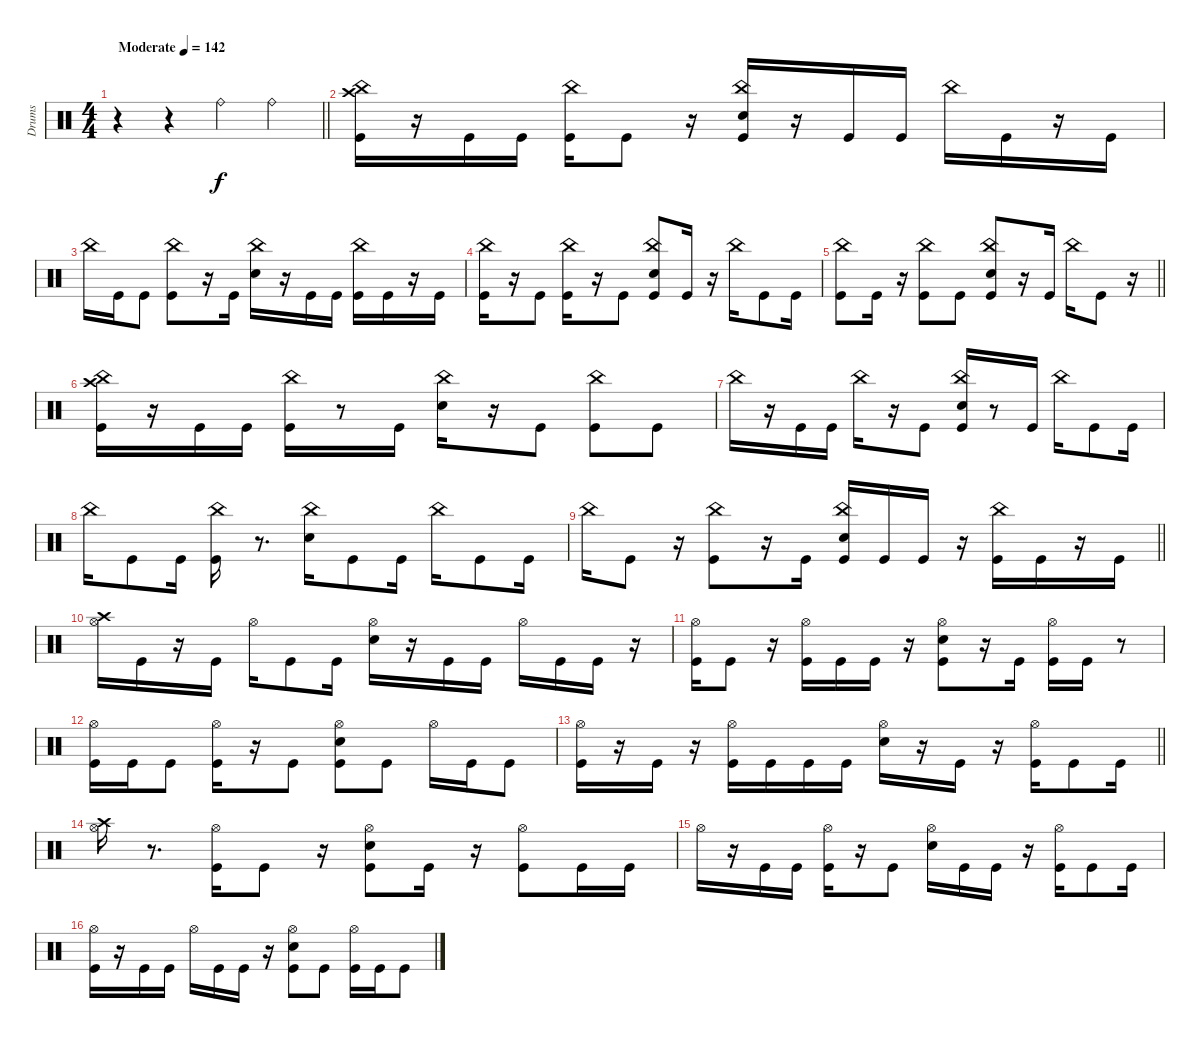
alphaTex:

\track ("Drums" "Drums") {instrument percussion}
\staff {score}
\articulation defaults
\ts (4 4)
\tempo (142 "Moderate")
\clef neutral
\barLineRight lightlight
\ks c
r.4{dy f} r.4 "Ride (bell)".4 "Ride (bell)".4 |
("Kick (hit)" "China (hit)" "Crash high (hit)").16 r.16 "Kick (hit)".16 "Kick (hit)".16 ("Kick (hit)" "China (hit)").16 "Kick (hit)".8 r.16 ("Kick (hit)" "China (hit)" "Electric Snare (hit)").16 r.16 "Kick (hit)".16 "Kick (hit)".16 "China (hit)".16 "Kick (hit)".16 r.16 "Kick (hit)".16 |
"China (hit)".16 "Kick (hit)".16 "Kick (hit)".8 ("Kick (hit)" "China (hit)").8 r.16 "Kick (hit)".16 ("China (hit)" "Electric Snare (hit)").16 r.16 "Kick (hit)".16 "Kick (hit)".16 ("Kick (hit)" "China (hit)").16 "Kick (hit)".16 r.16 "Kick (hit)".16 |
("Kick (hit)" "China (hit)").16 r.16 "Kick (hit)".8 ("Kick (hit)" "China (hit)").16 r.16 "Kick (hit)".8 ("Kick (hit)" "China (hit)" "Electric Snare (hit)").8 "Kick (hit)".16 r.16 "China (hit)".16 "Kick (hit)".8 "Kick (hit)".16 |
\barLineRight lightlight
("Kick (hit)" "China (hit)").8 "Kick (hit)".16 r.16 ("Kick (hit)" "China (hit)").8 "Kick (hit)".8 ("Kick (hit)" "China (hit)" "Electric Snare (hit)").8 r.16 "Kick (hit)".16 "China (hit)".16 "Kick (hit)".8 r.16 |
("Kick (hit)" "China (hit)" "Crash high (hit)").16 r.16 "Kick (hit)".16 "Kick (hit)".16 ("Kick (hit)" "China (hit)").16 r.8 "Kick (hit)".16 ("China (hit)" "Electric Snare (hit)").16 r.16 "Kick (hit)".8 ("Kick (hit)" "China (hit)").8 "Kick (hit)".8 |
"China (hit)".16 r.16 "Kick (hit)".16 "Kick (hit)".16 "China (hit)".16 r.16 "Kick (hit)".8 ("Kick (hit)" "China (hit)" "Electric Snare (hit)").16 r.8 "Kick (hit)".16 "China (hit)".16 "Kick (hit)".8 "Kick (hit)".16 |
"China (hit)".16 "Kick (hit)".8 "Kick (hit)".16 ("Kick (hit)" "China (hit)").16 r.8{d} ("China (hit)" "Electric Snare (hit)").16 "Kick (hit)".8 "Kick (hit)".16 "China (hit)".16 "Kick (hit)".8 "Kick (hit)".16 |
\barLineRight lightlight "China (hit)".16 "Kick (hit)".8
r.16 ("Kick (hit)" "China (hit)").8 r.16 "Kick (hit)".16 ("Kick (hit)" "China (hit)" "Electric Snare (hit)").16 "Kick (hit)".16 "Kick (hit)".16 r.16 ("Kick (hit)" "China (hit)").16 "Kick (hit)".16 r.16 "Kick (hit)".16 |
("Hi-Hat (open)" "Crash high (hit)").16 "Kick (hit)".16 r.16 "Kick (hit)".16 "Hi-Hat (open)".16 "Kick (hit)".8 "Kick (hit)".16 ("Hi-Hat (open)" "Electric Snare (hit)").16 r.16 "Kick (hit)".16 "Kick (hit)".16 "Hi-Hat (open)".16 "Kick (hit)".16 "Kick (hit)".16 r.16 |
("Kick (hit)" "Hi-Hat (open)").16 "Kick (hit)".8 r.16 ("Kick (hit)" "Hi-Hat (open)").16 "Kick (hit)".16 "Kick (hit)".16 r.16 ("Kick (hit)" "Hi-Hat (open)" "Electric Snare (hit)").8 r.16 "Kick (hit)".16 ("Kick (hit)" "Hi-Hat (open)").16 "Kick (hit)".16 r.8 |
("Kick (hit)" "Hi-Hat (open)").16 "Kick (hit)".16 "Kick (hit)".8 ("Kick (hit)" "Hi-Hat (open)").16 r.16 "Kick (hit)".8 ("Kick (hit)" "Hi-Hat (open)" "Electric Snare (hit)").8 "Kick (hit)".8 "Hi-Hat (open)".16 "Kick (hit)".16 "Kick (hit)".8 |
\barLineRight lightlight
("Kick (hit)" "Hi-Hat (open)").16 r.16 "Kick (hit)".16 r.16 ("Kick (hit)" "Hi-Hat (open)").16 "Kick (hit)".16 "Kick (hit)".16 "Kick (hit)".16 ("Hi-Hat (open)" "Electric Snare (hit)").16 r.16 "Kick (hit)".16 r.16 ("Kick (hit)" "Hi-Hat (open)").16 "Kick (hit)".8 "Kick (hit)".16 |
("Hi-Hat (open)" "Crash high (hit)").16 r.8{d} ("Kick (hit)" "Hi-Hat (open)").16 "Kick (hit)".8 r.16 ("Kick (hit)" "Hi-Hat (open)" "Electric Snare (hit)").8 "Kick (hit)".16 r.16 ("Kick (hit)" "Hi-Hat (open)").8 "Kick (hit)".16 "Kick (hit)".16 |
"Hi-Hat (open)".16 r.16 "Kick (hit)".16 "Kick (hit)".16 ("Kick (hit)" "Hi-Hat (open)").16 r.16 "Kick (hit)".8 ("Hi-Hat (open)" "Electric Snare (hit)").16 "Kick (hit)".16 "Kick (hit)".16 r.16 ("Kick (hit)" "Hi-Hat (open)").16 "Kick (hit)".8 "Kick (hit)".16 |
("Kick (hit)" "Hi-Hat (open)").16 r.16 "Kick (hit)".16 "Kick (hit)".16 "Hi-Hat (open)".16 "Kick (hit)".16 "Kick (hit)".16 r.16 ("Kick (hit)" "Hi-Hat (open)" "Electric Snare (hit)").8 "Kick (hit)".8 ("Kick (hit)" "Hi-Hat (open)").16 "Kick (hit)".16 "Kick (hit)".8
